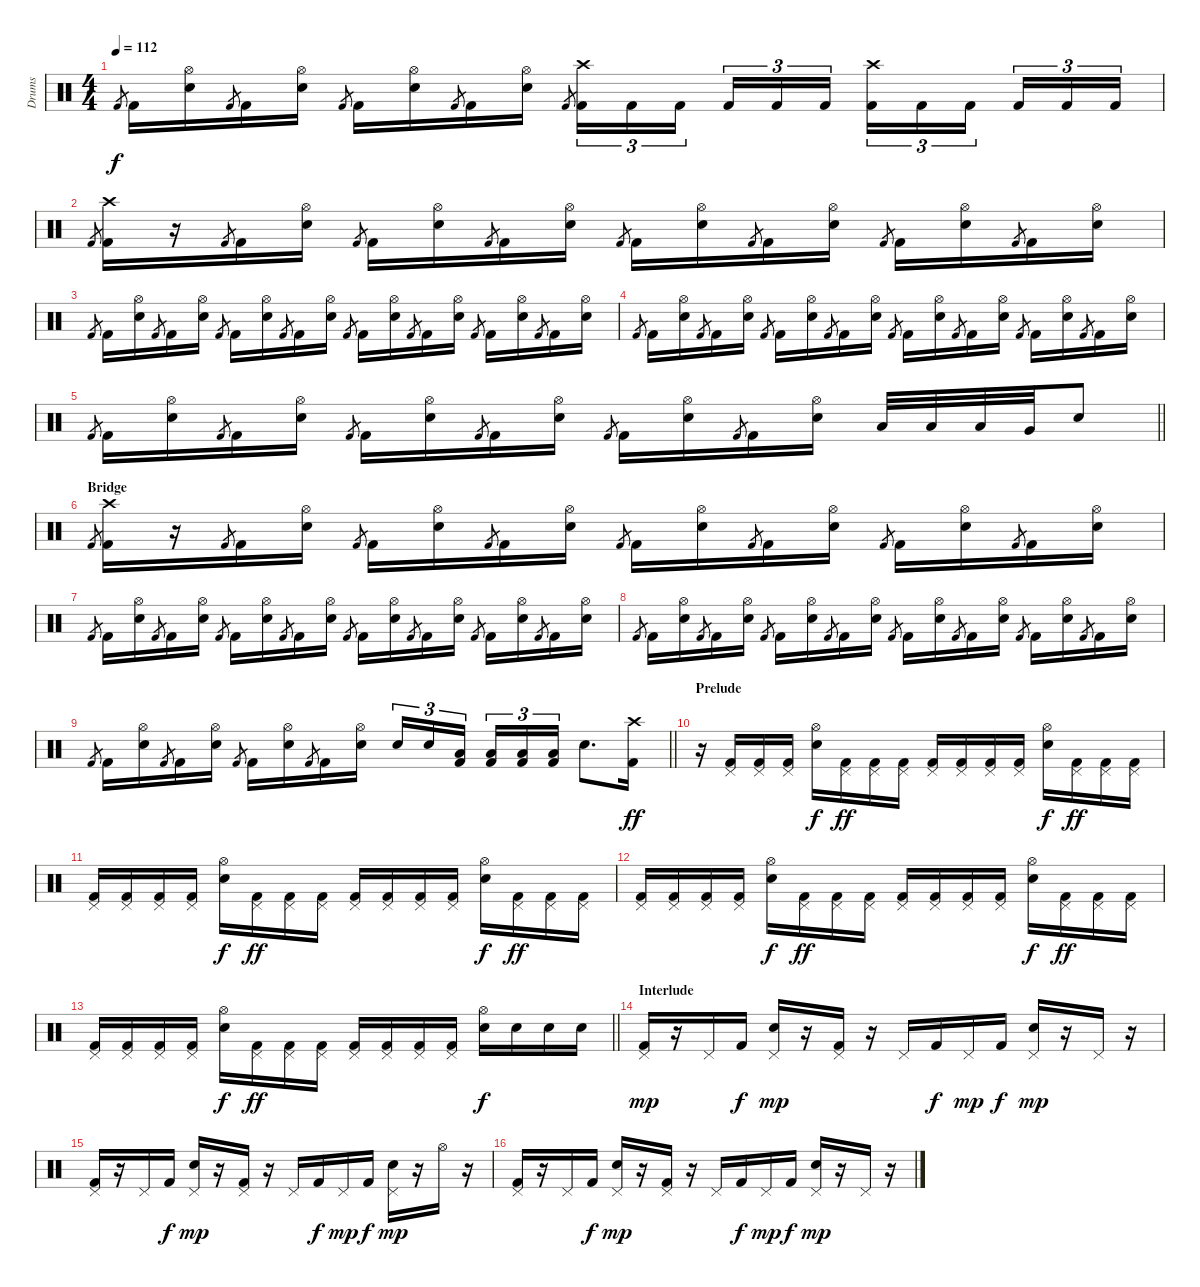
\track ("Drums" "Drums") {instrument percussion}
\staff {score}
\articulation defaults
\ts (4 4)
\tempo 112
\clef neutral
\ks c "Kick (hit) 2".8{gr dy f} "Kick (hit) 2".16
("Hi-Hat (open)" "Snare (hit) 2").16 "Kick (hit) 2".8{gr} "Kick (hit) 2".16 ("Hi-Hat (open)" "Snare (hit) 2").16 "Kick (hit) 2".8{gr} "Kick (hit) 2".16 ("Hi-Hat (open)" "Snare (hit) 2").16 "Kick (hit) 2".8{gr} "Kick (hit) 2".16 ("Hi-Hat (open)" "Snare (hit) 2").16 "Kick (hit) 2".8{gr} ("Crash high (hit)" "Kick (hit) 2").16{tu (3 2)} "Kick (hit) 2".16{tu (3 2)} "Kick (hit) 2".16{tu (3 2) beam splitsecondary} "Kick (hit) 2".16{tu (3 2)} "Kick (hit) 2".16{tu (3 2)} "Kick (hit) 2".16{tu (3 2)} ("Crash high (hit)" "Kick (hit) 2").16{tu (3 2)} "Kick (hit) 2".16{tu (3 2)} "Kick (hit) 2".16{tu (3 2) beam splitsecondary} "Kick (hit) 2".16{tu (3 2)} "Kick (hit) 2".16{tu (3 2)} "Kick (hit) 2".16{tu (3 2)} |
"Kick (hit) 2".8{gr} ("Crash high (hit)" "Kick (hit) 2").16 r.16 "Kick (hit) 2".8{gr} "Kick (hit) 2".16 ("Hi-Hat (open)" "Snare (hit) 2").16 "Kick (hit) 2".8{gr} "Kick (hit) 2".16 ("Hi-Hat (open)" "Snare (hit) 2").16 "Kick (hit) 2".8{gr} "Kick (hit) 2".16 ("Hi-Hat (open)" "Snare (hit) 2").16 "Kick (hit) 2".8{gr} "Kick (hit) 2".16 ("Hi-Hat (open)" "Snare (hit) 2").16 "Kick (hit) 2".8{gr} "Kick (hit) 2".16 ("Hi-Hat (open)" "Snare (hit) 2").16 "Kick (hit) 2".8{gr} "Kick (hit) 2".16 ("Hi-Hat (open)" "Snare (hit) 2").16 "Kick (hit) 2".8{gr} "Kick (hit) 2".16 ("Hi-Hat (open)" "Snare (hit) 2").16 |
"Kick (hit) 2".8{gr} "Kick (hit) 2".16 ("Hi-Hat (open)" "Snare (hit) 2").16 "Kick (hit) 2".8{gr} "Kick (hit) 2".16 ("Hi-Hat (open)" "Snare (hit) 2").16 "Kick (hit) 2".8{gr} "Kick (hit) 2".16 ("Hi-Hat (open)" "Snare (hit) 2").16 "Kick (hit) 2".8{gr} "Kick (hit) 2".16 ("Hi-Hat (open)" "Snare (hit) 2").16 "Kick (hit) 2".8{gr} "Kick (hit) 2".16 ("Hi-Hat (open)" "Snare (hit) 2").16 "Kick (hit) 2".8{gr} "Kick (hit) 2".16 ("Hi-Hat (open)" "Snare (hit) 2").16 "Kick (hit) 2".8{gr} "Kick (hit) 2".16 ("Hi-Hat (open)" "Snare (hit) 2").16 "Kick (hit) 2".8{gr} "Kick (hit) 2".16 ("Hi-Hat (open)" "Snare (hit) 2").16 |
"Kick (hit) 2".8{gr} "Kick (hit) 2".16 ("Hi-Hat (open)" "Snare (hit) 2").16 "Kick (hit) 2".8{gr} "Kick (hit) 2".16 ("Hi-Hat (open)" "Snare (hit) 2").16 "Kick (hit) 2".8{gr} "Kick (hit) 2".16 ("Hi-Hat (open)" "Snare (hit) 2").16 "Kick (hit) 2".8{gr} "Kick (hit) 2".16 ("Hi-Hat (open)" "Snare (hit) 2").16 "Kick (hit) 2".8{gr} "Kick (hit) 2".16 ("Hi-Hat (open)" "Snare (hit) 2").16 "Kick (hit) 2".8{gr} "Kick (hit) 2".16 ("Hi-Hat (open)" "Snare (hit) 2").16 "Kick (hit) 2".8{gr} "Kick (hit) 2".16 ("Hi-Hat (open)" "Snare (hit) 2").16 "Kick (hit) 2".8{gr} "Kick (hit) 2".16 ("Hi-Hat (open)" "Snare (hit) 2").16 |
\barLineRight lightlight "Kick (hit) 2".8{gr} "Kick (hit) 2".16
("Hi-Hat (open)" "Snare (hit) 2").16 "Kick (hit) 2".8{gr} "Kick (hit) 2".16 ("Hi-Hat (open)" "Snare (hit) 2").16 "Kick (hit) 2".8{gr} "Kick (hit) 2".16 ("Hi-Hat (open)" "Snare (hit) 2").16 "Kick (hit) 2".8{gr} "Kick (hit) 2".16 ("Hi-Hat (open)" "Snare (hit) 2").16 "Kick (hit) 2".8{gr} "Kick (hit) 2".16 ("Hi-Hat (open)" "Snare (hit) 2").16 "Kick (hit) 2".8{gr} "Kick (hit) 2".16 ("Hi-Hat (open)" "Snare (hit) 2").16 "Low Tom (hit)".32 "Low Tom (hit)".32 "Low Tom (hit)".32 "Very Low Tom (hit)".32 "Snare (hit) 2".8 |
\section ("" "Bridge")
"Kick (hit) 2".8{gr} ("Crash high (hit)" "Kick (hit) 2").16 r.16 "Kick (hit) 2".8{gr} "Kick (hit) 2".16 ("Hi-Hat (open)" "Snare (hit) 2").16 "Kick (hit) 2".8{gr} "Kick (hit) 2".16 ("Hi-Hat (open)" "Snare (hit) 2").16 "Kick (hit) 2".8{gr} "Kick (hit) 2".16 ("Hi-Hat (open)" "Snare (hit) 2").16 "Kick (hit) 2".8{gr} "Kick (hit) 2".16 ("Hi-Hat (open)" "Snare (hit) 2").16 "Kick (hit) 2".8{gr} "Kick (hit) 2".16 ("Hi-Hat (open)" "Snare (hit) 2").16 "Kick (hit) 2".8{gr} "Kick (hit) 2".16 ("Hi-Hat (open)" "Snare (hit) 2").16 "Kick (hit) 2".8{gr} "Kick (hit) 2".16 ("Hi-Hat (open)" "Snare (hit) 2").16 |
"Kick (hit) 2".8{gr} "Kick (hit) 2".16 ("Hi-Hat (open)" "Snare (hit) 2").16 "Kick (hit) 2".8{gr} "Kick (hit) 2".16 ("Hi-Hat (open)" "Snare (hit) 2").16 "Kick (hit) 2".8{gr} "Kick (hit) 2".16 ("Hi-Hat (open)" "Snare (hit) 2").16 "Kick (hit) 2".8{gr} "Kick (hit) 2".16 ("Hi-Hat (open)" "Snare (hit) 2").16 "Kick (hit) 2".8{gr} "Kick (hit) 2".16 ("Hi-Hat (open)" "Snare (hit) 2").16 "Kick (hit) 2".8{gr} "Kick (hit) 2".16 ("Hi-Hat (open)" "Snare (hit) 2").16 "Kick (hit) 2".8{gr} "Kick (hit) 2".16 ("Hi-Hat (open)" "Snare (hit) 2").16 "Kick (hit) 2".8{gr} "Kick (hit) 2".16 ("Hi-Hat (open)" "Snare (hit) 2").16 |
"Kick (hit) 2".8{gr} "Kick (hit) 2".16 ("Hi-Hat (open)" "Snare (hit) 2").16 "Kick (hit) 2".8{gr} "Kick (hit) 2".16 ("Hi-Hat (open)" "Snare (hit) 2").16 "Kick (hit) 2".8{gr} "Kick (hit) 2".16 ("Hi-Hat (open)" "Snare (hit) 2").16 "Kick (hit) 2".8{gr} "Kick (hit) 2".16 ("Hi-Hat (open)" "Snare (hit) 2").16 "Kick (hit) 2".8{gr} "Kick (hit) 2".16 ("Hi-Hat (open)" "Snare (hit) 2").16 "Kick (hit) 2".8{gr} "Kick (hit) 2".16 ("Hi-Hat (open)" "Snare (hit) 2").16 "Kick (hit) 2".8{gr} "Kick (hit) 2".16 ("Hi-Hat (open)" "Snare (hit) 2").16 "Kick (hit) 2".8{gr} "Kick (hit) 2".16 ("Hi-Hat (open)" "Snare (hit) 2").16 |
\barLineRight lightlight "Kick (hit) 2".8{gr} "Kick (hit) 2".16
("Hi-Hat (open)" "Snare (hit) 2").16 "Kick (hit) 2".8{gr} "Kick (hit) 2".16 ("Hi-Hat (open)" "Snare (hit) 2").16 "Kick (hit) 2".8{gr} "Kick (hit) 2".16 ("Hi-Hat (open)" "Snare (hit) 2").16 "Kick (hit) 2".8{gr} "Kick (hit) 2".16 ("Hi-Hat (open)" "Snare (hit) 2").16 "Snare (hit) 2".16{tu (3 2)} "Snare (hit) 2".16{tu (3 2)} ("Low Tom (hit)" "Kick (hit) 2").16{tu (3 2) beam splitsecondary} ("Low Tom (hit)" "Kick (hit) 2").16{tu (3 2)} ("Low Floor Tom (hit)" "Kick (hit) 2").16{tu (3 2)} ("Low Floor Tom (hit)" "Kick (hit) 2").16{tu (3 2)} "Snare (hit) 2".8{d} ("Crash high (hit)" "Kick (hit) 2").16{dy ff} |
\section ("" "Prelude")
r.16 ("Pedal Hi-Hat (hit)" "Kick (hit) 2").16 ("Pedal Hi-Hat (hit)" "Kick (hit) 2").16 ("Pedal Hi-Hat (hit)" "Kick (hit) 2").16 ("Hi-Hat (open)" "Snare (hit) 2").16{dy f} ("Pedal Hi-Hat (hit)" "Kick (hit) 2").16{dy ff} ("Pedal Hi-Hat (hit)" "Kick (hit) 2").16 ("Pedal Hi-Hat (hit)" "Kick (hit) 2").16 ("Pedal Hi-Hat (hit)" "Kick (hit) 2").16 ("Pedal Hi-Hat (hit)" "Kick (hit) 2").16 ("Pedal Hi-Hat (hit)" "Kick (hit) 2").16 ("Pedal Hi-Hat (hit)" "Kick (hit) 2").16 ("Hi-Hat (open)" "Snare (hit) 2").16{dy f} ("Pedal Hi-Hat (hit)" "Kick (hit) 2").16{dy ff} ("Pedal Hi-Hat (hit)" "Kick (hit) 2").16 ("Pedal Hi-Hat (hit)" "Kick (hit) 2").16 |
("Pedal Hi-Hat (hit)" "Kick (hit) 2").16 ("Pedal Hi-Hat (hit)" "Kick (hit) 2").16 ("Pedal Hi-Hat (hit)" "Kick (hit) 2").16 ("Pedal Hi-Hat (hit)" "Kick (hit) 2").16 ("Hi-Hat (open)" "Snare (hit) 2").16{dy f} ("Pedal Hi-Hat (hit)" "Kick (hit) 2").16{dy ff} ("Pedal Hi-Hat (hit)" "Kick (hit) 2").16 ("Pedal Hi-Hat (hit)" "Kick (hit) 2").16 ("Pedal Hi-Hat (hit)" "Kick (hit) 2").16 ("Pedal Hi-Hat (hit)" "Kick (hit) 2").16 ("Pedal Hi-Hat (hit)" "Kick (hit) 2").16 ("Pedal Hi-Hat (hit)" "Kick (hit) 2").16 ("Hi-Hat (open)" "Snare (hit) 2").16{dy f} ("Pedal Hi-Hat (hit)" "Kick (hit) 2").16{dy ff} ("Pedal Hi-Hat (hit)" "Kick (hit) 2").16 ("Pedal Hi-Hat (hit)" "Kick (hit) 2").16 |
("Pedal Hi-Hat (hit)" "Kick (hit) 2").16 ("Pedal Hi-Hat (hit)" "Kick (hit) 2").16 ("Pedal Hi-Hat (hit)" "Kick (hit) 2").16 ("Pedal Hi-Hat (hit)" "Kick (hit) 2").16 ("Hi-Hat (open)" "Snare (hit) 2").16{dy f} ("Pedal Hi-Hat (hit)" "Kick (hit) 2").16{dy ff} ("Pedal Hi-Hat (hit)" "Kick (hit) 2").16 ("Pedal Hi-Hat (hit)" "Kick (hit) 2").16 ("Pedal Hi-Hat (hit)" "Kick (hit) 2").16 ("Pedal Hi-Hat (hit)" "Kick (hit) 2").16 ("Pedal Hi-Hat (hit)" "Kick (hit) 2").16 ("Pedal Hi-Hat (hit)" "Kick (hit) 2").16 ("Hi-Hat (open)" "Snare (hit) 2").16{dy f} ("Pedal Hi-Hat (hit)" "Kick (hit) 2").16{dy ff} ("Pedal Hi-Hat (hit)" "Kick (hit) 2").16 ("Pedal Hi-Hat (hit)" "Kick (hit) 2").16 |
\barLineRight lightlight
("Pedal Hi-Hat (hit)" "Kick (hit) 2").16 ("Pedal Hi-Hat (hit)" "Kick (hit) 2").16 ("Pedal Hi-Hat (hit)" "Kick (hit) 2").16 ("Pedal Hi-Hat (hit)" "Kick (hit) 2").16 ("Hi-Hat (open)" "Snare (hit) 2").16{dy f} ("Pedal Hi-Hat (hit)" "Kick (hit) 2").16{dy ff} ("Pedal Hi-Hat (hit)" "Kick (hit) 2").16 ("Pedal Hi-Hat (hit)" "Kick (hit) 2").16 ("Pedal Hi-Hat (hit)" "Kick (hit) 2").16 ("Pedal Hi-Hat (hit)" "Kick (hit) 2").16 ("Pedal Hi-Hat (hit)" "Kick (hit) 2").16 ("Pedal Hi-Hat (hit)" "Kick (hit) 2").16 ("Hi-Hat (open)" "Snare (hit) 2").16{dy f} "Snare (hit) 2".16 "Snare (hit) 2".16 "Snare (hit) 2".16 |
\section ("" "Interlude")
("Pedal Hi-Hat (hit)" "Kick (hit) 2").16{dy mp} r.16 "Pedal Hi-Hat (hit)".16 "Kick (hit) 2".16{dy f} ("Pedal Hi-Hat (hit)" "Snare (hit) 2").16{dy mp} r.16 ("Pedal Hi-Hat (hit)" "Kick (hit) 2").16 r.16 "Pedal Hi-Hat (hit)".16 "Kick (hit) 2".16{dy f} "Pedal Hi-Hat (hit)".16{dy mp} "Kick (hit) 2".16{dy f} ("Pedal Hi-Hat (hit)" "Snare (hit) 2").16{dy mp} r.16 "Pedal Hi-Hat (hit)".16 r.16 |
("Pedal Hi-Hat (hit)" "Kick (hit) 2").16 r.16 "Pedal Hi-Hat (hit)".16 "Kick (hit) 2".16{dy f} ("Pedal Hi-Hat (hit)" "Snare (hit) 2").16{dy mp} r.16 ("Pedal Hi-Hat (hit)" "Kick (hit) 2").16 r.16 "Pedal Hi-Hat (hit)".16 "Kick (hit) 2".16{dy f} "Pedal Hi-Hat (hit)".16{dy mp} "Kick (hit) 2".16{dy f} ("Pedal Hi-Hat (hit)" "Snare (hit) 2").16{dy mp} r.16 "Hi-Hat (open)".16 r.16 |
("Pedal Hi-Hat (hit)" "Kick (hit) 2").16 r.16 "Pedal Hi-Hat (hit)".16 "Kick (hit) 2".16{dy f} ("Pedal Hi-Hat (hit)" "Snare (hit) 2").16{dy mp} r.16 ("Pedal Hi-Hat (hit)" "Kick (hit) 2").16 r.16 "Pedal Hi-Hat (hit)".16 "Kick (hit) 2".16{dy f} "Pedal Hi-Hat (hit)".16{dy mp} "Kick (hit) 2".16{dy f} ("Pedal Hi-Hat (hit)" "Snare (hit) 2").16{dy mp} r.16 "Pedal Hi-Hat (hit)".16 r.16
